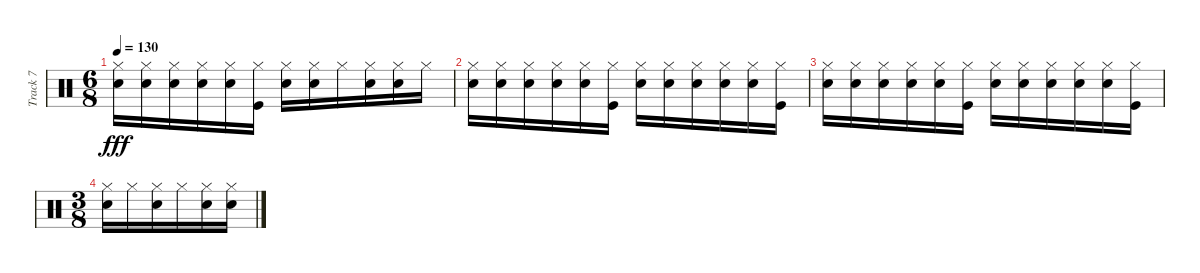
\track ("Track 7" "Track 7") {instrument percussion}
\staff {score}
\articulation defaults
\ts (6 8)
\tempo 130
\clef neutral
\ks c
("Snare (hit) 2" "Hi-Hat (closed)").16{dy fff} ("Snare (hit) 2" "Hi-Hat (closed)").16 ("Snare (hit) 2" "Hi-Hat (closed)").16 ("Snare (hit) 2" "Hi-Hat (closed)").16 ("Snare (hit) 2" "Hi-Hat (closed)").16 ("Kick (hit)" "Hi-Hat (closed)").16 ("Snare (hit) 2" "Hi-Hat (closed)").16 ("Snare (hit) 2" "Hi-Hat (closed)").16 "Hi-Hat (closed)".16 ("Snare (hit) 2" "Hi-Hat (closed)").16 ("Snare (hit) 2" "Hi-Hat (closed)").16 "Hi-Hat (closed)".16 |
("Snare (hit) 2" "Hi-Hat (closed)").16 ("Snare (hit) 2" "Hi-Hat (closed)").16 ("Snare (hit) 2" "Hi-Hat (closed)").16 ("Snare (hit) 2" "Hi-Hat (closed)").16 ("Snare (hit) 2" "Hi-Hat (closed)").16 ("Kick (hit)" "Hi-Hat (closed)").16 ("Snare (hit) 2" "Hi-Hat (closed)").16 ("Snare (hit) 2" "Hi-Hat (closed)").16 ("Snare (hit) 2" "Hi-Hat (closed)").16 ("Snare (hit) 2" "Hi-Hat (closed)").16 ("Snare (hit) 2" "Hi-Hat (closed)").16 ("Kick (hit)" "Hi-Hat (closed)").16 |
("Snare (hit) 2" "Hi-Hat (closed)").16 ("Snare (hit) 2" "Hi-Hat (closed)").16 ("Snare (hit) 2" "Hi-Hat (closed)").16 ("Snare (hit) 2" "Hi-Hat (closed)").16 ("Snare (hit) 2" "Hi-Hat (closed)").16 ("Kick (hit)" "Hi-Hat (closed)").16 ("Snare (hit) 2" "Hi-Hat (closed)").16 ("Snare (hit) 2" "Hi-Hat (closed)").16 ("Snare (hit) 2" "Hi-Hat (closed)").16 ("Snare (hit) 2" "Hi-Hat (closed)").16 ("Snare (hit) 2" "Hi-Hat (closed)").16 ("Kick (hit)" "Hi-Hat (closed)").16 |
\ts (3 8)
("Snare (hit) 2" "Hi-Hat (closed)").16 "Hi-Hat (closed)".16 ("Snare (hit) 2" "Hi-Hat (closed)").16 "Hi-Hat (closed)".16 ("Snare (hit) 2" "Hi-Hat (closed)").16 ("Snare (hit) 2" "Hi-Hat (closed)").16
